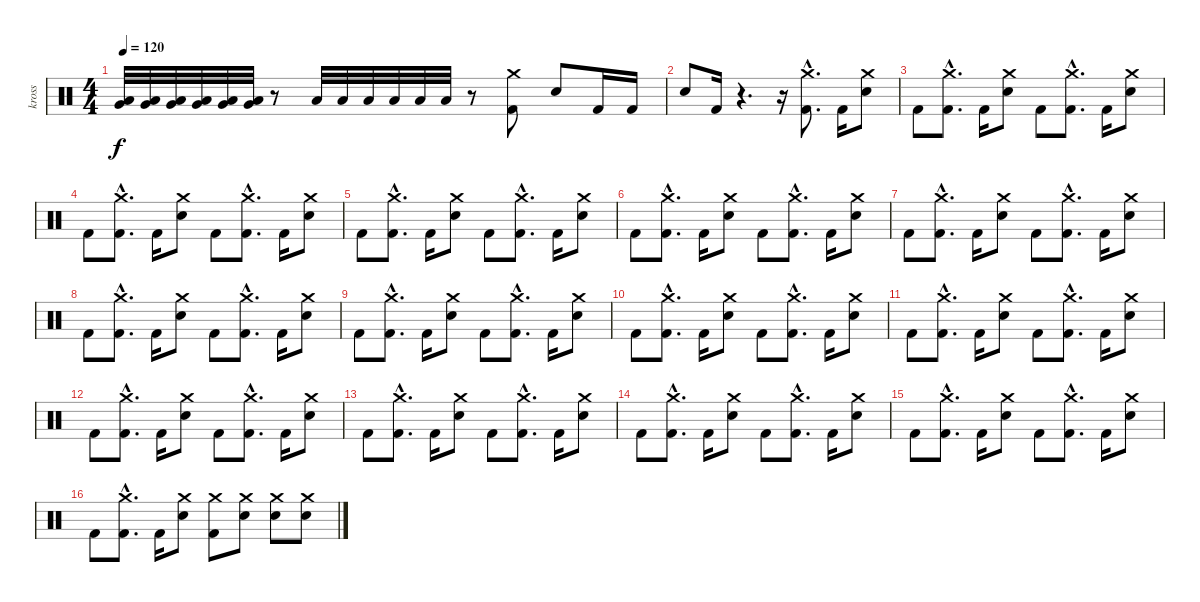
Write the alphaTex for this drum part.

\track ("kross" "kross") {instrument percussion}
\staff {score}
\articulation defaults
\ts (4 4)
\tempo 120
\clef neutral
\ks c
("Very Low Tom (hit)" "Low Floor Tom (hit)").32{dy f} ("Very Low Tom (hit)" "Low Floor Tom (hit)").32 ("Very Low Tom (hit)" "Low Floor Tom (hit)").32 ("Very Low Tom (hit)" "Low Floor Tom (hit)").32 ("Very Low Tom (hit)" "Low Floor Tom (hit)").32 ("Very Low Tom (hit)" "Low Floor Tom (hit)").32 r.8 "Low Floor Tom (hit)".32 "Low Floor Tom (hit)".32 "Low Floor Tom (hit)".32 "Low Floor Tom (hit)".32 "Low Floor Tom (hit)".32 "Low Floor Tom (hit)".32 r.8 ("Crash medium (hit)" "Kick (hit) 2").8 "Electric Snare (hit)".8 "Kick (hit) 2".16 "Kick (hit) 2".16 |
"Electric Snare (hit)".8 "Kick (hit) 2".16 r.4{d} r.16 ("Crash medium (hit)"{hac} "Kick (hit) 2"{hac}).8{d} "Kick (hit) 2".16 ("Crash medium (hit)" "Electric Snare (hit)").8 |
"Kick (hit) 2".8 ("Crash medium (hit)"{hac} "Kick (hit) 2"{hac}).8{d} "Kick (hit) 2".16 ("Crash medium (hit)" "Electric Snare (hit)").8 "Kick (hit) 2".8 ("Crash medium (hit)"{hac} "Kick (hit) 2"{hac}).8{d} "Kick (hit) 2".16 ("Crash medium (hit)" "Electric Snare (hit)").8 |
"Kick (hit) 2".8 ("Crash medium (hit)"{hac} "Kick (hit) 2"{hac}).8{d} "Kick (hit) 2".16 ("Crash medium (hit)" "Electric Snare (hit)").8 "Kick (hit) 2".8 ("Crash medium (hit)"{hac} "Kick (hit) 2"{hac}).8{d} "Kick (hit) 2".16 ("Crash medium (hit)" "Electric Snare (hit)").8 |
"Kick (hit) 2".8 ("Crash medium (hit)"{hac} "Kick (hit) 2"{hac}).8{d} "Kick (hit) 2".16 ("Crash medium (hit)" "Electric Snare (hit)").8 "Kick (hit) 2".8 ("Crash medium (hit)"{hac} "Kick (hit) 2"{hac}).8{d} "Kick (hit) 2".16 ("Crash medium (hit)" "Electric Snare (hit)").8 |
"Kick (hit) 2".8 ("Crash medium (hit)"{hac} "Kick (hit) 2"{hac}).8{d} "Kick (hit) 2".16 ("Crash medium (hit)" "Electric Snare (hit)").8 "Kick (hit) 2".8 ("Crash medium (hit)"{hac} "Kick (hit) 2"{hac}).8{d} "Kick (hit) 2".16 ("Crash medium (hit)" "Electric Snare (hit)").8 |
"Kick (hit) 2".8 ("Crash medium (hit)"{hac} "Kick (hit) 2"{hac}).8{d} "Kick (hit) 2".16 ("Crash medium (hit)" "Electric Snare (hit)").8 "Kick (hit) 2".8 ("Crash medium (hit)"{hac} "Kick (hit) 2"{hac}).8{d} "Kick (hit) 2".16 ("Crash medium (hit)" "Electric Snare (hit)").8 |
"Kick (hit) 2".8 ("Crash medium (hit)"{hac} "Kick (hit) 2"{hac}).8{d} "Kick (hit) 2".16 ("Crash medium (hit)" "Electric Snare (hit)").8 "Kick (hit) 2".8 ("Crash medium (hit)"{hac} "Kick (hit) 2"{hac}).8{d} "Kick (hit) 2".16 ("Crash medium (hit)" "Electric Snare (hit)").8 |
"Kick (hit) 2".8 ("Crash medium (hit)"{hac} "Kick (hit) 2"{hac}).8{d} "Kick (hit) 2".16 ("Crash medium (hit)" "Electric Snare (hit)").8 "Kick (hit) 2".8 ("Crash medium (hit)"{hac} "Kick (hit) 2"{hac}).8{d} "Kick (hit) 2".16 ("Crash medium (hit)" "Electric Snare (hit)").8 |
"Kick (hit) 2".8 ("Crash medium (hit)"{hac} "Kick (hit) 2"{hac}).8{d} "Kick (hit) 2".16 ("Crash medium (hit)" "Electric Snare (hit)").8 "Kick (hit) 2".8 ("Crash medium (hit)"{hac} "Kick (hit) 2"{hac}).8{d} "Kick (hit) 2".16 ("Crash medium (hit)" "Electric Snare (hit)").8 |
"Kick (hit) 2".8 ("Crash medium (hit)"{hac} "Kick (hit) 2"{hac}).8{d} "Kick (hit) 2".16 ("Crash medium (hit)" "Electric Snare (hit)").8 "Kick (hit) 2".8 ("Crash medium (hit)"{hac} "Kick (hit) 2"{hac}).8{d} "Kick (hit) 2".16 ("Crash medium (hit)" "Electric Snare (hit)").8 |
"Kick (hit) 2".8 ("Crash medium (hit)"{hac} "Kick (hit) 2"{hac}).8{d} "Kick (hit) 2".16 ("Crash medium (hit)" "Electric Snare (hit)").8 "Kick (hit) 2".8 ("Crash medium (hit)"{hac} "Kick (hit) 2"{hac}).8{d} "Kick (hit) 2".16 ("Crash medium (hit)" "Electric Snare (hit)").8 |
"Kick (hit) 2".8 ("Crash medium (hit)"{hac} "Kick (hit) 2"{hac}).8{d} "Kick (hit) 2".16 ("Crash medium (hit)" "Electric Snare (hit)").8 "Kick (hit) 2".8 ("Crash medium (hit)"{hac} "Kick (hit) 2"{hac}).8{d} "Kick (hit) 2".16 ("Crash medium (hit)" "Electric Snare (hit)").8 |
"Kick (hit) 2".8 ("Crash medium (hit)"{hac} "Kick (hit) 2"{hac}).8{d} "Kick (hit) 2".16 ("Crash medium (hit)" "Electric Snare (hit)").8 "Kick (hit) 2".8 ("Crash medium (hit)"{hac} "Kick (hit) 2"{hac}).8{d} "Kick (hit) 2".16 ("Crash medium (hit)" "Electric Snare (hit)").8 |
"Kick (hit) 2".8 ("Crash medium (hit)"{hac} "Kick (hit) 2"{hac}).8{d} "Kick (hit) 2".16 ("Crash medium (hit)" "Electric Snare (hit)").8 "Kick (hit) 2".8 ("Crash medium (hit)"{hac} "Kick (hit) 2"{hac}).8{d} "Kick (hit) 2".16 ("Crash medium (hit)" "Electric Snare (hit)").8 |
"Kick (hit) 2".8 ("Crash medium (hit)"{hac} "Kick (hit) 2"{hac}).8{d} "Kick (hit) 2".16 ("Crash medium (hit)" "Electric Snare (hit)").8 ("Crash medium (hit)" "Kick (hit) 2").8 ("Crash medium (hit)" "Electric Snare (hit)").8 ("Crash medium (hit)" "Electric Snare (hit)").8 ("Crash medium (hit)" "Electric Snare (hit)").8
